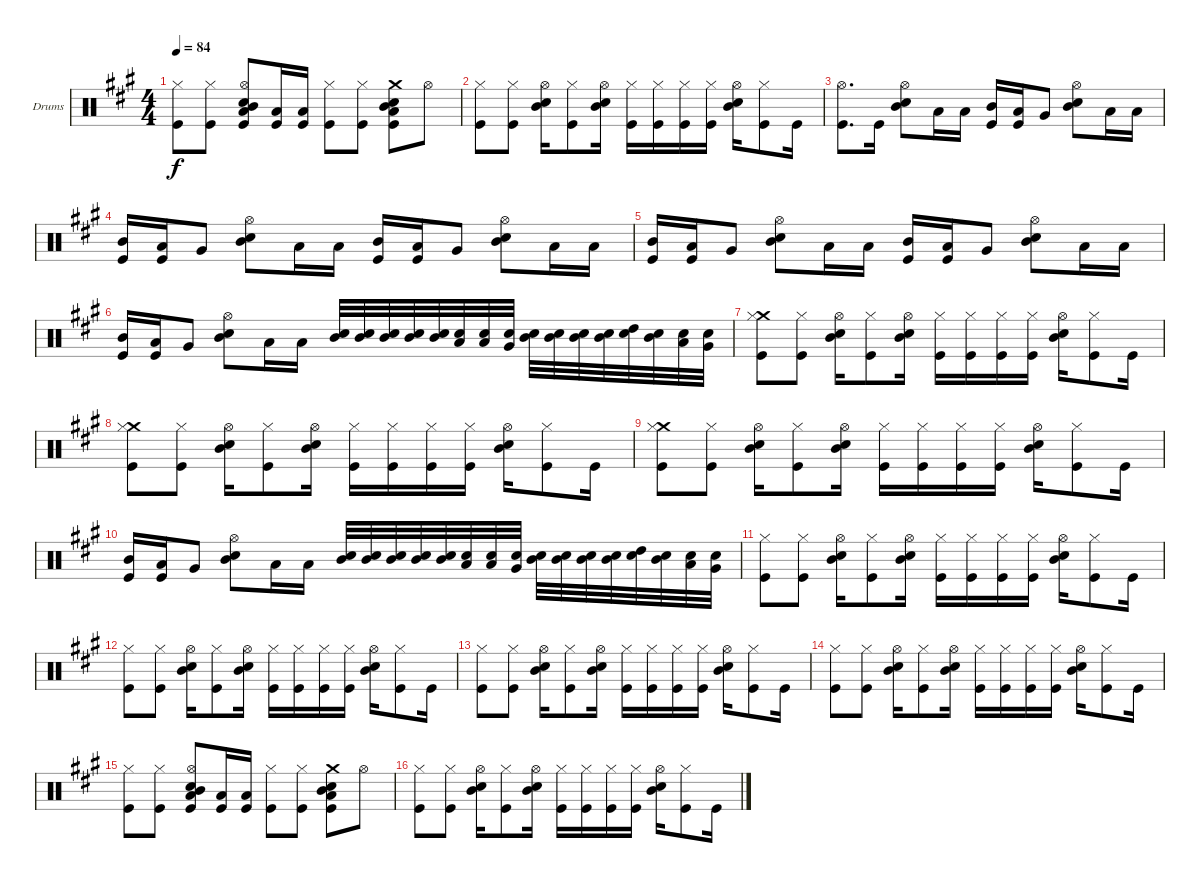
\defaultSystemsLayout 4
\bracketExtendMode groupsimilarinstruments
\firstSystemTrackNameOrientation horizontal
\otherSystemsTrackNameOrientation horizontal
\track ("Drumkit" "Drums") {instrument percussion}
\staff {score}
\articulation defaults
\ts (4 4)
\tempo 84
\clef neutral
\ks a
("Hi-Hat (closed)" "Kick (hit)").8{dy f} ("Hi-Hat (closed)" "Kick (hit)").8 ("Snare (hit) 2" "Mid Tom (hit)" "Hi-Hat (open)" "Low Tom (hit)" "Kick (hit)").8 ("Low Tom (hit)" "Kick (hit)").16 ("Low Tom (hit)" "Kick (hit)").16 ("Hi-Hat (closed)" "Kick (hit)").8 ("Hi-Hat (closed)" "Kick (hit)").8 ("Snare (hit) 2" "Mid Tom (hit)" "Crash medium (hit)" "Low Tom (hit)" "Kick (hit)").8 "Hi-Hat (open)".8 |
("Kick (hit)" "Hi-Hat (closed)").8 ("Kick (hit)" "Hi-Hat (closed)").8 ("Snare (hit) 2" "Mid Tom (hit)" "Hi-Hat (open)").16 ("Kick (hit)" "Hi-Hat (closed)").8 ("Snare (hit) 2" "Mid Tom (hit)" "Hi-Hat (open)").16 ("Kick (hit)" "Hi-Hat (closed)").16 ("Kick (hit)" "Hi-Hat (closed)").16 ("Kick (hit)" "Hi-Hat (closed)").16 ("Kick (hit)" "Hi-Hat (closed)").16 ("Snare (hit) 2" "Mid Tom (hit)" "Hi-Hat (open)").16 ("Kick (hit)" "Hi-Hat (closed)").8 "Kick (hit)".16 |
("Hi-Hat (open)" "Kick (hit)").8{d} "Kick (hit)".16 ("Snare (hit) 2" "Mid Tom (hit)" "Hi-Hat (open)").8 "Low Tom (hit)".16 "Low Tom (hit)".16 ("Mid Tom (hit)" "Kick (hit)").16 ("Low Tom (hit)" "Kick (hit)").16 "Very Low Tom (hit)".8 ("Snare (hit) 2" "Mid Tom (hit)" "Hi-Hat (open)").8 "Low Tom (hit)".16 "Low Tom (hit)".16 |
("Mid Tom (hit)" "Kick (hit)").16 ("Low Tom (hit)" "Kick (hit)").16 "Very Low Tom (hit)".8 ("Snare (hit) 2" "Mid Tom (hit)" "Hi-Hat (open)").8 "Low Tom (hit)".16 "Low Tom (hit)".16 ("Mid Tom (hit)" "Kick (hit)").16 ("Low Tom (hit)" "Kick (hit)").16 "Very Low Tom (hit)".8 ("Snare (hit) 2" "Mid Tom (hit)" "Hi-Hat (open)").8 "Low Tom (hit)".16 "Low Tom (hit)".16 |
("Mid Tom (hit)" "Kick (hit)").16 ("Low Tom (hit)" "Kick (hit)").16 "Very Low Tom (hit)".8 ("Snare (hit) 2" "Mid Tom (hit)" "Hi-Hat (open)").8 "Low Tom (hit)".16 "Low Tom (hit)".16 ("Mid Tom (hit)" "Kick (hit)").16 ("Low Tom (hit)" "Kick (hit)").16 "Very Low Tom (hit)".8 ("Snare (hit) 2" "Mid Tom (hit)" "Hi-Hat (open)").8 "Low Tom (hit)".16 "Low Tom (hit)".16 |
("Mid Tom (hit)" "Kick (hit)").16 ("Low Tom (hit)" "Kick (hit)").16 "Very Low Tom (hit)".8 ("Snare (hit) 2" "Mid Tom (hit)" "Hi-Hat (open)").8 "Low Tom (hit)".16 "Low Tom (hit)".16 ("Mid Tom (hit)" "Snare (hit) 2").32 ("Mid Tom (hit)" "Snare (hit) 2").32 ("Mid Tom (hit)" "Snare (hit) 2").32 ("Mid Tom (hit)" "Snare (hit) 2").32 ("Mid Tom (hit)" "Snare (hit) 2").32 ("Low Tom (hit)" "Snare (hit) 2").32 ("Low Tom (hit)" "Snare (hit) 2").32 ("Very Low Tom (hit)" "Snare (hit) 2").32 ("Mid Tom (hit)" "Snare (hit) 2").32 ("Mid Tom (hit)" "Snare (hit) 2").32 ("Mid Tom (hit)" "Snare (hit) 2").32 ("Mid Tom (hit)" "Snare (hit) 2").32 ("High Tom (hit)" "Snare (hit) 2").32 ("Mid Tom (hit)" "Snare (hit) 2").32 ("Low Tom (hit)" "Snare (hit) 2").32 ("Very Low Tom (hit)" "Snare (hit) 2").32 |
("Crash medium (hit)" "Kick (hit)" "Hi-Hat (closed)").8 ("Kick (hit)" "Hi-Hat (closed)").8 ("Snare (hit) 2" "Mid Tom (hit)" "Hi-Hat (open)").16 ("Kick (hit)" "Hi-Hat (closed)").8 ("Snare (hit) 2" "Mid Tom (hit)" "Hi-Hat (open)").16 ("Kick (hit)" "Hi-Hat (closed)").16 ("Kick (hit)" "Hi-Hat (closed)").16 ("Kick (hit)" "Hi-Hat (closed)").16 ("Kick (hit)" "Hi-Hat (closed)").16 ("Snare (hit) 2" "Mid Tom (hit)" "Hi-Hat (open)").16 ("Kick (hit)" "Hi-Hat (closed)").8 "Kick (hit)".16 |
("Crash medium (hit)" "Kick (hit)" "Hi-Hat (closed)").8 ("Kick (hit)" "Hi-Hat (closed)").8 ("Snare (hit) 2" "Mid Tom (hit)" "Hi-Hat (open)").16 ("Kick (hit)" "Hi-Hat (closed)").8 ("Snare (hit) 2" "Mid Tom (hit)" "Hi-Hat (open)").16 ("Kick (hit)" "Hi-Hat (closed)").16 ("Kick (hit)" "Hi-Hat (closed)").16 ("Kick (hit)" "Hi-Hat (closed)").16 ("Kick (hit)" "Hi-Hat (closed)").16 ("Snare (hit) 2" "Mid Tom (hit)" "Hi-Hat (open)").16 ("Kick (hit)" "Hi-Hat (closed)").8 "Kick (hit)".16 |
("Crash medium (hit)" "Kick (hit)" "Hi-Hat (closed)").8 ("Kick (hit)" "Hi-Hat (closed)").8 ("Snare (hit) 2" "Mid Tom (hit)" "Hi-Hat (open)").16 ("Kick (hit)" "Hi-Hat (closed)").8 ("Snare (hit) 2" "Mid Tom (hit)" "Hi-Hat (open)").16 ("Kick (hit)" "Hi-Hat (closed)").16 ("Kick (hit)" "Hi-Hat (closed)").16 ("Kick (hit)" "Hi-Hat (closed)").16 ("Kick (hit)" "Hi-Hat (closed)").16 ("Snare (hit) 2" "Mid Tom (hit)" "Hi-Hat (open)").16 ("Kick (hit)" "Hi-Hat (closed)").8 "Kick (hit)".16 |
("Mid Tom (hit)" "Kick (hit)").16 ("Low Tom (hit)" "Kick (hit)").16 "Very Low Tom (hit)".8 ("Snare (hit) 2" "Mid Tom (hit)" "Hi-Hat (open)").8 "Low Tom (hit)".16 "Low Tom (hit)".16 ("Mid Tom (hit)" "Snare (hit) 2").32 ("Mid Tom (hit)" "Snare (hit) 2").32 ("Mid Tom (hit)" "Snare (hit) 2").32 ("Mid Tom (hit)" "Snare (hit) 2").32 ("Mid Tom (hit)" "Snare (hit) 2").32 ("Low Tom (hit)" "Snare (hit) 2").32 ("Low Tom (hit)" "Snare (hit) 2").32 ("Very Low Tom (hit)" "Snare (hit) 2").32 ("Mid Tom (hit)" "Snare (hit) 2").32 ("Mid Tom (hit)" "Snare (hit) 2").32 ("Mid Tom (hit)" "Snare (hit) 2").32 ("Mid Tom (hit)" "Snare (hit) 2").32 ("High Tom (hit)" "Snare (hit) 2").32 ("Mid Tom (hit)" "Snare (hit) 2").32 ("Low Tom (hit)" "Snare (hit) 2").32 ("Very Low Tom (hit)" "Snare (hit) 2").32 |
("Kick (hit)" "Hi-Hat (closed)").8 ("Kick (hit)" "Hi-Hat (closed)").8 ("Snare (hit) 2" "Mid Tom (hit)" "Hi-Hat (open)").16 ("Kick (hit)" "Hi-Hat (closed)").8 ("Snare (hit) 2" "Mid Tom (hit)" "Hi-Hat (open)").16 ("Kick (hit)" "Hi-Hat (closed)").16 ("Kick (hit)" "Hi-Hat (closed)").16 ("Kick (hit)" "Hi-Hat (closed)").16 ("Kick (hit)" "Hi-Hat (closed)").16 ("Snare (hit) 2" "Mid Tom (hit)" "Hi-Hat (open)").16 ("Kick (hit)" "Hi-Hat (closed)").8 "Kick (hit)".16 |
("Kick (hit)" "Hi-Hat (closed)").8 ("Kick (hit)" "Hi-Hat (closed)").8 ("Snare (hit) 2" "Mid Tom (hit)" "Hi-Hat (open)").16 ("Kick (hit)" "Hi-Hat (closed)").8 ("Snare (hit) 2" "Mid Tom (hit)" "Hi-Hat (open)").16 ("Kick (hit)" "Hi-Hat (closed)").16 ("Kick (hit)" "Hi-Hat (closed)").16 ("Kick (hit)" "Hi-Hat (closed)").16 ("Kick (hit)" "Hi-Hat (closed)").16 ("Snare (hit) 2" "Mid Tom (hit)" "Hi-Hat (open)").16 ("Kick (hit)" "Hi-Hat (closed)").8 "Kick (hit)".16 |
("Kick (hit)" "Hi-Hat (closed)").8 ("Kick (hit)" "Hi-Hat (closed)").8 ("Snare (hit) 2" "Mid Tom (hit)" "Hi-Hat (open)").16 ("Kick (hit)" "Hi-Hat (closed)").8 ("Snare (hit) 2" "Mid Tom (hit)" "Hi-Hat (open)").16 ("Kick (hit)" "Hi-Hat (closed)").16 ("Kick (hit)" "Hi-Hat (closed)").16 ("Kick (hit)" "Hi-Hat (closed)").16 ("Kick (hit)" "Hi-Hat (closed)").16 ("Snare (hit) 2" "Mid Tom (hit)" "Hi-Hat (open)").16 ("Kick (hit)" "Hi-Hat (closed)").8 "Kick (hit)".16 |
("Kick (hit)" "Hi-Hat (closed)").8 ("Kick (hit)" "Hi-Hat (closed)").8 ("Snare (hit) 2" "Mid Tom (hit)" "Hi-Hat (open)").16 ("Kick (hit)" "Hi-Hat (closed)").8 ("Snare (hit) 2" "Mid Tom (hit)" "Hi-Hat (open)").16 ("Kick (hit)" "Hi-Hat (closed)").16 ("Kick (hit)" "Hi-Hat (closed)").16 ("Kick (hit)" "Hi-Hat (closed)").16 ("Kick (hit)" "Hi-Hat (closed)").16 ("Snare (hit) 2" "Mid Tom (hit)" "Hi-Hat (open)").16 ("Kick (hit)" "Hi-Hat (closed)").8 "Kick (hit)".16 |
("Hi-Hat (closed)" "Kick (hit)").8 ("Hi-Hat (closed)" "Kick (hit)").8 ("Snare (hit) 2" "Mid Tom (hit)" "Hi-Hat (open)" "Low Tom (hit)" "Kick (hit)").8 ("Low Tom (hit)" "Kick (hit)").16 ("Low Tom (hit)" "Kick (hit)").16 ("Hi-Hat (closed)" "Kick (hit)").8 ("Hi-Hat (closed)" "Kick (hit)").8 ("Snare (hit) 2" "Mid Tom (hit)" "Crash medium (hit)" "Low Tom (hit)" "Kick (hit)").8 "Hi-Hat (open)".8 |
("Kick (hit)" "Hi-Hat (closed)").8 ("Kick (hit)" "Hi-Hat (closed)").8 ("Snare (hit) 2" "Mid Tom (hit)" "Hi-Hat (open)").16 ("Kick (hit)" "Hi-Hat (closed)").8 ("Snare (hit) 2" "Mid Tom (hit)" "Hi-Hat (open)").16 ("Kick (hit)" "Hi-Hat (closed)").16 ("Kick (hit)" "Hi-Hat (closed)").16 ("Kick (hit)" "Hi-Hat (closed)").16 ("Kick (hit)" "Hi-Hat (closed)").16 ("Snare (hit) 2" "Mid Tom (hit)" "Hi-Hat (open)").16 ("Kick (hit)" "Hi-Hat (closed)").8 "Kick (hit)".16
